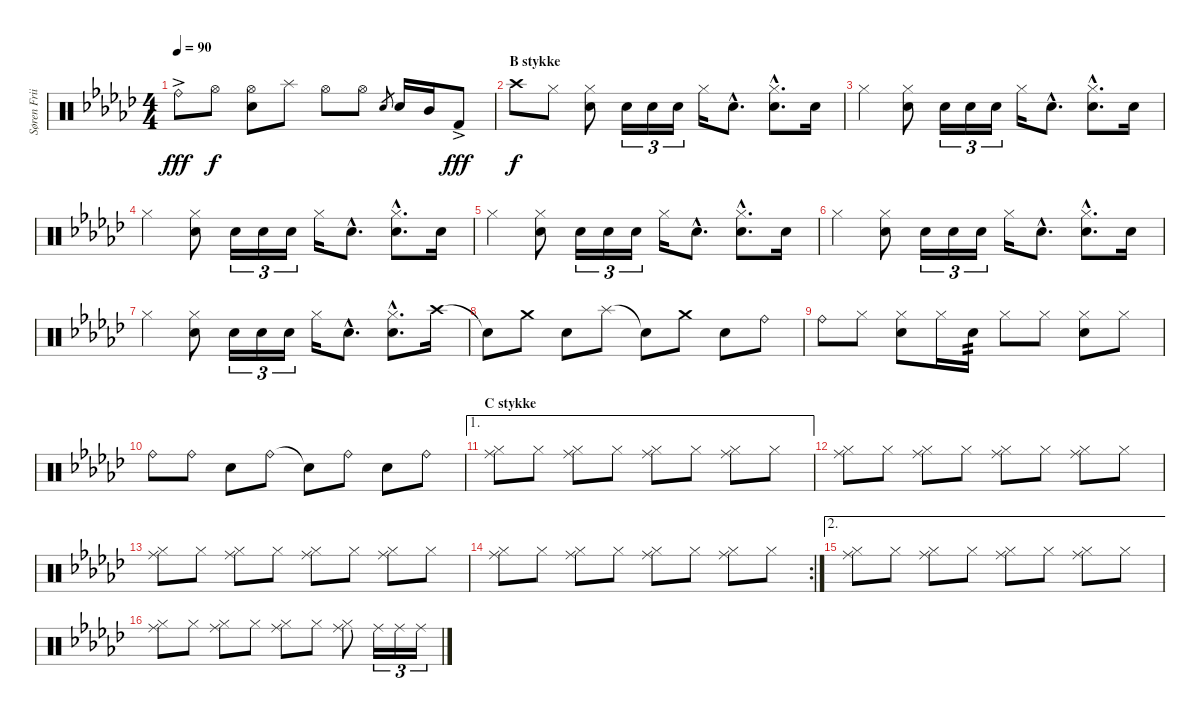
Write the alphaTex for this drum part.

\track ("Søren Friis (Drums)" "Søren Frii") {instrument percussion}
\staff {score}
\articulation defaults
\ts (4 4)
\tempo 90
\clef neutral
\ks gb "Ride (bell)"{ac}.8{dy fff} "Hi-Hat (open)".8{dy f}
("Hi-Hat (open)" "Snare (hit) 2").8 "Splash (hit)".8 "Hi-Hat (open)".8 "Hi-Hat (open)".8 "Snare (hit) 2".8{gr} "Snare (hit) 2".16 "Mid Tom (hit)".16 "Kick (hit) 2"{ac}.8{dy fff} |
\section ("" "B stykke")
"Crash high (hit)".8{dy f} "Hi-Hat (closed)".8 ("Hi-Hat (closed)" "Snare (hit) 2").8 "Snare (hit) 2".16{tu (3 2)} "Snare (hit) 2".16{tu (3 2)} "Snare (hit) 2".16{tu (3 2)} "Hi-Hat (closed)".16 "Snare (hit) 2"{hac}.8{d} ("Hi-Hat (closed)"{hac} "Snare (hit) 2"{hac}).8{d} "Snare (hit) 2".16 |
"Hi-Hat (closed)".4 ("Hi-Hat (closed)" "Snare (hit) 2").8 "Snare (hit) 2".16{tu (3 2)} "Snare (hit) 2".16{tu (3 2)} "Snare (hit) 2".16{tu (3 2)} "Hi-Hat (closed)".16 "Snare (hit) 2"{hac}.8{d} ("Hi-Hat (closed)"{hac} "Snare (hit) 2"{hac}).8{d} "Snare (hit) 2".16 |
"Hi-Hat (closed)".4 ("Hi-Hat (closed)" "Snare (hit) 2").8 "Snare (hit) 2".16{tu (3 2)} "Snare (hit) 2".16{tu (3 2)} "Snare (hit) 2".16{tu (3 2)} "Hi-Hat (closed)".16 "Snare (hit) 2"{hac}.8{d} ("Hi-Hat (closed)"{hac} "Snare (hit) 2"{hac}).8{d} "Snare (hit) 2".16 |
"Hi-Hat (closed)".4 ("Hi-Hat (closed)" "Snare (hit) 2").8 "Snare (hit) 2".16{tu (3 2)} "Snare (hit) 2".16{tu (3 2)} "Snare (hit) 2".16{tu (3 2)} "Hi-Hat (closed)".16 "Snare (hit) 2"{hac}.8{d} ("Hi-Hat (closed)"{hac} "Snare (hit) 2"{hac}).8{d} "Snare (hit) 2".16 |
"Hi-Hat (closed)".4 ("Hi-Hat (closed)" "Snare (hit) 2").8 "Snare (hit) 2".16{tu (3 2)} "Snare (hit) 2".16{tu (3 2)} "Snare (hit) 2".16{tu (3 2)} "Hi-Hat (closed)".16 "Snare (hit) 2"{hac}.8{d} ("Hi-Hat (closed)"{hac} "Snare (hit) 2"{hac}).8{d} "Snare (hit) 2".16 |
"Hi-Hat (closed)".4 ("Hi-Hat (closed)" "Snare (hit) 2").8 "Snare (hit) 2".16{tu (3 2)} "Snare (hit) 2".16{tu (3 2)} "Snare (hit) 2".16{tu (3 2)} "Hi-Hat (closed)".16 "Snare (hit) 2"{hac}.8{d} ("Hi-Hat (closed)"{hac} "Snare (hit) 2"{hac}).8{d} "Crash high (hit)".16 |
"Snare (hit)"{t}.8 "Crash medium (hit)".8 "Snare (hit) 2".8 "Splash (hit)".8 "Snare (hit)"{t}.8 "Crash medium (hit)".8 "Snare (hit) 2".8 "Ride (bell)".8 |
"Ride (bell)".8 "Hi-Hat (closed)".8 ("Hi-Hat (closed)" "Snare (hit) 2").8 "Hi-Hat (closed)".16 "Snare (hit) 2".16{tp 2} "Hi-Hat (closed)".8 "Hi-Hat (closed)".8 ("Snare (hit) 2" "Hi-Hat (closed)").8 "Hi-Hat (closed)".8 |
"Ride (bell)".8 "Ride (bell)".8 "Snare (hit) 2".8 "Ride (bell)".8 "Snare (hit)"{t}.8 "Ride (bell)".8 "Snare (hit) 2".8 "Ride (bell)".8 |
\ae 1
\section ("" "C stykke")
("Hi-Hat (closed)" "Ride (middle)").8 "Hi-Hat (closed)".8 ("Hi-Hat (closed)" "Ride (middle)").8 "Hi-Hat (closed)".8 ("Hi-Hat (closed)" "Ride (middle)").8 "Hi-Hat (closed)".8 ("Hi-Hat (closed)" "Ride (middle)").8 "Hi-Hat (closed)".8 |
("Hi-Hat (closed)" "Ride (middle)").8 "Hi-Hat (closed)".8 ("Hi-Hat (closed)" "Ride (middle)").8 "Hi-Hat (closed)".8 ("Hi-Hat (closed)" "Ride (middle)").8 "Hi-Hat (closed)".8 ("Hi-Hat (closed)" "Ride (middle)").8 "Hi-Hat (closed)".8 |
("Hi-Hat (closed)" "Ride (middle)").8 "Hi-Hat (closed)".8 ("Hi-Hat (closed)" "Ride (middle)").8 "Hi-Hat (closed)".8 ("Hi-Hat (closed)" "Ride (middle)").8 "Hi-Hat (closed)".8 ("Hi-Hat (closed)" "Ride (middle)").8 "Hi-Hat (closed)".8 |
\rc 2
("Hi-Hat (closed)" "Ride (middle)").8 "Hi-Hat (closed)".8 ("Hi-Hat (closed)" "Ride (middle)").8 "Hi-Hat (closed)".8 ("Hi-Hat (closed)" "Ride (middle)").8 "Hi-Hat (closed)".8 ("Hi-Hat (closed)" "Ride (middle)").8 "Hi-Hat (closed)".8 |
\ae 2
("Hi-Hat (closed)" "Ride (middle)").8 "Hi-Hat (closed)".8 ("Hi-Hat (closed)" "Ride (middle)").8 "Hi-Hat (closed)".8 ("Hi-Hat (closed)" "Ride (middle)").8 "Hi-Hat (closed)".8 ("Hi-Hat (closed)" "Ride (middle)").8 "Hi-Hat (closed)".8 |
("Hi-Hat (closed)" "Ride (middle)").8 "Hi-Hat (closed)".8 ("Hi-Hat (closed)" "Ride (middle)").8 "Hi-Hat (closed)".8 ("Hi-Hat (closed)" "Ride (middle)").8 "Hi-Hat (closed)".8 ("Hi-Hat (closed)" "Ride (middle)").8 "Ride (middle)".16{tu (3 2)} "Ride (middle)".16{tu (3 2)} "Ride (middle)".16{tu (3 2)}
